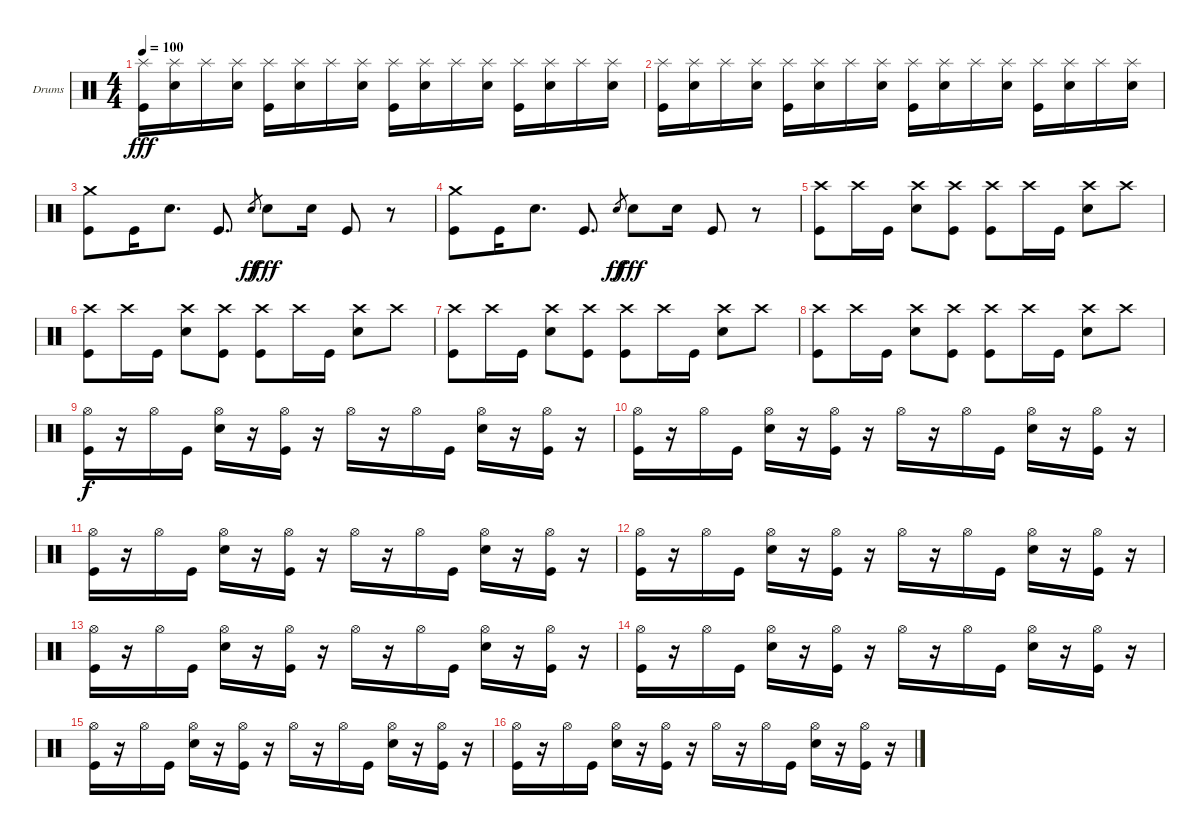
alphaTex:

\bracketExtendMode groupsimilarinstruments
\firstSystemTrackNameOrientation horizontal
\otherSystemsTrackNameOrientation horizontal
\track ("Lars Ulrich (Drum)" "Drums") {instrument percussion}
\staff {score}
\articulation defaults
\ts (4 4)
\tempo 100
\clef neutral
\scale
0.333333
\ks c
("Splash (hit)" "Kick (hit)").16{dy fff} ("Splash (hit)" "Snare (hit) 2").16 "Splash (hit)".16 ("Splash (hit)" "Snare (hit) 2").16 ("Splash (hit)" "Kick (hit)").16 ("Splash (hit)" "Snare (hit) 2").16 "Splash (hit)".16 ("Splash (hit)" "Snare (hit) 2").16 ("Splash (hit)" "Kick (hit)").16 ("Splash (hit)" "Snare (hit) 2").16 "Splash (hit)".16 ("Splash (hit)" "Snare (hit) 2").16 ("Splash (hit)" "Kick (hit)").16 ("Splash (hit)" "Snare (hit) 2").16 "Splash (hit)".16 ("Splash (hit)" "Snare (hit) 2").16 |
\scale
0.333333 ("Splash (hit)" "Kick (hit)").16 ("Splash (hit)" "Snare (hit) 2").16 "Splash (hit)".16 ("Splash (hit)" "Snare (hit) 2").16 ("Splash (hit)" "Kick (hit)").16 ("Splash (hit)" "Snare (hit) 2").16 "Splash (hit)".16 ("Splash (hit)" "Snare (hit) 2").16 ("Splash (hit)" "Kick (hit)").16 ("Splash (hit)" "Snare (hit) 2").16 "Splash (hit)".16 ("Splash (hit)" "Snare (hit) 2").16 ("Splash (hit)" "Kick (hit)").16 ("Splash (hit)" "Snare (hit) 2").16 "Splash (hit)".16 ("Splash (hit)" "Snare (hit) 2").16 |
\scale
0.333333 ("Crash medium (hit)" "Kick (hit)").8 "Kick (hit)".16 "Snare (hit) 2".8{d} "Kick (hit)".8{d} "Snare (hit) 2".8{gr dy ff} "Snare (hit) 2".8{dy fff} "Snare (hit) 2".16 "Kick (hit)".8 r.8 |
\scale
0.333333 ("Crash medium (hit)" "Kick (hit)").8 "Kick (hit)".16 "Snare (hit) 2".8{d} "Kick (hit)".8{d} "Snare (hit) 2".8{gr dy ff} "Snare (hit) 2".8{dy fff} "Snare (hit) 2".16 "Kick (hit)".8 r.8 |
\scale
0.333333 ("Crash high (hit)" "Kick (hit)").8 "Crash high (hit)".16 "Kick (hit)".16 ("Crash high (hit)" "Snare (hit) 2").8 ("Crash high (hit)" "Kick (hit)").8 ("Crash high (hit)" "Kick (hit)").8 "Crash high (hit)".16 "Kick (hit)".16 ("Crash high (hit)" "Snare (hit) 2").8 "Crash high (hit)".8 |
\scale
0.333333 ("Crash high (hit)" "Kick (hit)").8 "Crash high (hit)".16 "Kick (hit)".16 ("Crash high (hit)" "Snare (hit) 2").8 ("Crash high (hit)" "Kick (hit)").8 ("Crash high (hit)" "Kick (hit)").8 "Crash high (hit)".16 "Kick (hit)".16 ("Crash high (hit)" "Snare (hit) 2").8 "Crash high (hit)".8 |
\scale
0.333333 ("Crash high (hit)" "Kick (hit)").8 "Crash high (hit)".16 "Kick (hit)".16 ("Crash high (hit)" "Snare (hit) 2").8 ("Crash high (hit)" "Kick (hit)").8 ("Crash high (hit)" "Kick (hit)").8 "Crash high (hit)".16 "Kick (hit)".16 ("Crash high (hit)" "Snare (hit) 2").8 "Crash high (hit)".8 |
\scale
0.333333 ("Crash high (hit)" "Kick (hit)").8 "Crash high (hit)".16 "Kick (hit)".16 ("Crash high (hit)" "Snare (hit) 2").8 ("Crash high (hit)" "Kick (hit)").8 ("Crash high (hit)" "Kick (hit)").8 "Crash high (hit)".16 "Kick (hit)".16 ("Crash high (hit)" "Snare (hit) 2").8 "Crash high (hit)".8 |
\scale
0.333333 ("Hi-Hat (open)" "Kick (hit)").16{dy f} r.16 "Hi-Hat (open)".16 "Kick (hit)".16 ("Hi-Hat (open)" "Snare (hit) 2").16 r.16 ("Hi-Hat (open)" "Kick (hit)").16 r.16 "Hi-Hat (open)".16 r.16 "Hi-Hat (open)".16 "Kick (hit)".16 ("Hi-Hat (open)" "Snare (hit) 2").16 r.16 ("Hi-Hat (open)" "Kick (hit)").16 r.16 |
\scale
0.333333 ("Hi-Hat (open)" "Kick (hit)").16 r.16 "Hi-Hat (open)".16 "Kick (hit)".16 ("Hi-Hat (open)" "Snare (hit) 2").16 r.16 ("Hi-Hat (open)" "Kick (hit)").16 r.16 "Hi-Hat (open)".16 r.16 "Hi-Hat (open)".16 "Kick (hit)".16 ("Hi-Hat (open)" "Snare (hit) 2").16 r.16 ("Hi-Hat (open)" "Kick (hit)").16 r.16 |
\scale
0.333333 ("Hi-Hat (open)" "Kick (hit)").16 r.16 "Hi-Hat (open)".16 "Kick (hit)".16 ("Hi-Hat (open)" "Snare (hit) 2").16 r.16 ("Hi-Hat (open)" "Kick (hit)").16 r.16 "Hi-Hat (open)".16 r.16 "Hi-Hat (open)".16 "Kick (hit)".16 ("Hi-Hat (open)" "Snare (hit) 2").16 r.16 ("Hi-Hat (open)" "Kick (hit)").16 r.16 |
\scale
0.333333 ("Hi-Hat (open)" "Kick (hit)").16 r.16 "Hi-Hat (open)".16 "Kick (hit)".16 ("Hi-Hat (open)" "Snare (hit) 2").16 r.16 ("Hi-Hat (open)" "Kick (hit)").16 r.16 "Hi-Hat (open)".16 r.16 "Hi-Hat (open)".16 "Kick (hit)".16 ("Hi-Hat (open)" "Snare (hit) 2").16 r.16 ("Hi-Hat (open)" "Kick (hit)").16 r.16 |
\scale
0.333333 ("Hi-Hat (open)" "Kick (hit)").16 r.16 "Hi-Hat (open)".16 "Kick (hit)".16 ("Hi-Hat (open)" "Snare (hit) 2").16 r.16 ("Hi-Hat (open)" "Kick (hit)").16 r.16 "Hi-Hat (open)".16 r.16 "Hi-Hat (open)".16 "Kick (hit)".16 ("Hi-Hat (open)" "Snare (hit) 2").16 r.16 ("Hi-Hat (open)" "Kick (hit)").16 r.16 |
\scale
0.333333 ("Hi-Hat (open)" "Kick (hit)").16 r.16 "Hi-Hat (open)".16 "Kick (hit)".16 ("Hi-Hat (open)" "Snare (hit) 2").16 r.16 ("Hi-Hat (open)" "Kick (hit)").16 r.16 "Hi-Hat (open)".16 r.16 "Hi-Hat (open)".16 "Kick (hit)".16 ("Hi-Hat (open)" "Snare (hit) 2").16 r.16 ("Hi-Hat (open)" "Kick (hit)").16 r.16 |
\scale
0.333333 ("Hi-Hat (open)" "Kick (hit)").16 r.16 "Hi-Hat (open)".16 "Kick (hit)".16 ("Hi-Hat (open)" "Snare (hit) 2").16 r.16 ("Hi-Hat (open)" "Kick (hit)").16 r.16 "Hi-Hat (open)".16 r.16 "Hi-Hat (open)".16 "Kick (hit)".16 ("Hi-Hat (open)" "Snare (hit) 2").16 r.16 ("Hi-Hat (open)" "Kick (hit)").16 r.16 |
\scale
0.333333 ("Hi-Hat (open)" "Kick (hit)").16 r.16 "Hi-Hat (open)".16 "Kick (hit)".16 ("Hi-Hat (open)" "Snare (hit) 2").16 r.16 ("Hi-Hat (open)" "Kick (hit)").16 r.16 "Hi-Hat (open)".16 r.16 "Hi-Hat (open)".16 "Kick (hit)".16 ("Hi-Hat (open)" "Snare (hit) 2").16 r.16 ("Hi-Hat (open)" "Kick (hit)").16 r.16
